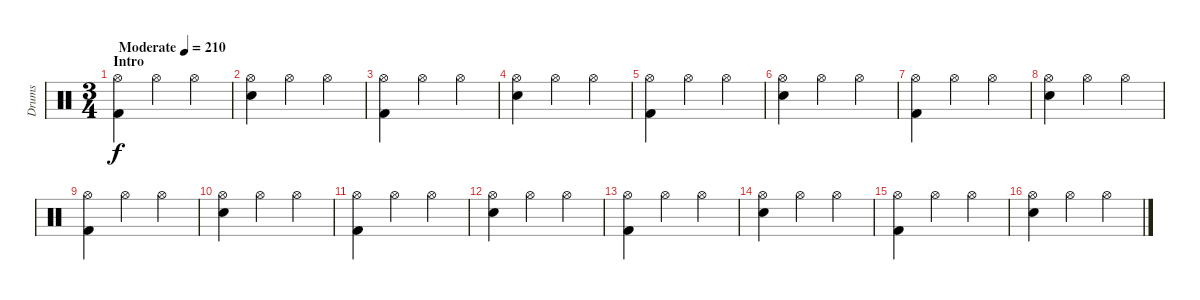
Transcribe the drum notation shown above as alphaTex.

\track ("Drums" "Drums") {instrument percussion}
\staff {score}
\articulation defaults
\ts (3 4)
\section ("" "Intro")
\tempo (210 "Moderate")
\clef neutral
\ks c
("Hi-Hat (open)" "Kick (hit) 2").4{dy f} "Hi-Hat (open)".4 "Hi-Hat (open)".4 |
("Hi-Hat (open)" "Snare (hit) 2").4 "Hi-Hat (open)".4 "Hi-Hat (open)".4 |
("Hi-Hat (open)" "Kick (hit) 2").4 "Hi-Hat (open)".4 "Hi-Hat (open)".4 |
("Hi-Hat (open)" "Snare (hit) 2").4 "Hi-Hat (open)".4 "Hi-Hat (open)".4 |
("Hi-Hat (open)" "Kick (hit) 2").4 "Hi-Hat (open)".4 "Hi-Hat (open)".4 |
("Hi-Hat (open)" "Snare (hit) 2").4 "Hi-Hat (open)".4 "Hi-Hat (open)".4 |
("Hi-Hat (open)" "Kick (hit) 2").4 "Hi-Hat (open)".4 "Hi-Hat (open)".4 |
("Hi-Hat (open)" "Snare (hit) 2").4 "Hi-Hat (open)".4 "Hi-Hat (open)".4 |
("Hi-Hat (open)" "Kick (hit) 2").4 "Hi-Hat (open)".4 "Hi-Hat (open)".4 |
("Hi-Hat (open)" "Snare (hit) 2").4 "Hi-Hat (open)".4 "Hi-Hat (open)".4 |
("Hi-Hat (open)" "Kick (hit) 2").4 "Hi-Hat (open)".4 "Hi-Hat (open)".4 |
("Hi-Hat (open)" "Snare (hit) 2").4 "Hi-Hat (open)".4 "Hi-Hat (open)".4 |
("Hi-Hat (open)" "Kick (hit) 2").4 "Hi-Hat (open)".4 "Hi-Hat (open)".4 |
("Hi-Hat (open)" "Snare (hit) 2").4 "Hi-Hat (open)".4 "Hi-Hat (open)".4 |
("Hi-Hat (open)" "Kick (hit) 2").4 "Hi-Hat (open)".4 "Hi-Hat (open)".4 |
("Hi-Hat (open)" "Snare (hit) 2").4 "Hi-Hat (open)".4 "Hi-Hat (open)".4
